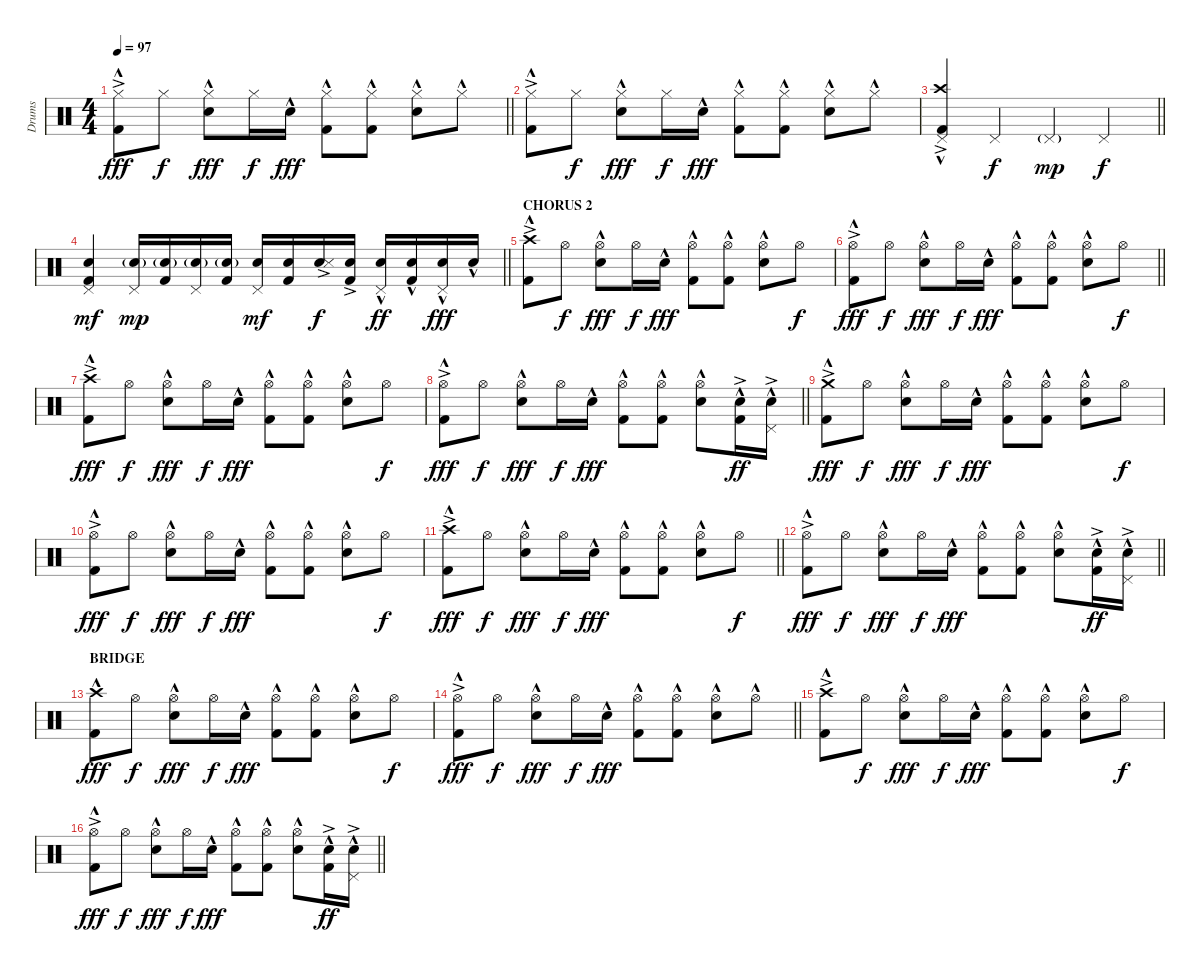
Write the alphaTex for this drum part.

\track ("Drums" "Drums") {instrument percussion}
\staff {score}
\articulation defaults
\ts (4 4)
\tempo 97
\clef neutral
\barLineRight lightlight
\ks c
("Hi-Hat (closed)"{ac} "Kick (hit) 2"{hac}).8{dy fff} "Hi-Hat (closed)".8{dy f} ("Hi-Hat (closed)" "Snare (hit) 2"{hac}).8{dy fff} "Hi-Hat (closed)".16{dy f} "Snare (hit) 2"{hac}.16{dy fff} ("Hi-Hat (closed)" "Kick (hit) 2"{hac}).8 ("Hi-Hat (closed)" "Kick (hit) 2"{hac}).8 ("Hi-Hat (closed)" "Snare (hit) 2"{hac}).8 "Hi-Hat (closed)"{hac}.8 |
("Hi-Hat (closed)"{ac} "Kick (hit) 2"{hac}).8 "Hi-Hat (closed)".8{dy f} ("Hi-Hat (closed)" "Snare (hit) 2"{hac}).8{dy fff} "Hi-Hat (closed)".16{dy f} "Snare (hit) 2"{hac}.16{dy fff} ("Hi-Hat (closed)" "Kick (hit) 2"{hac}).8 ("Hi-Hat (closed)" "Kick (hit) 2"{hac}).8 ("Hi-Hat (closed)" "Snare (hit) 2"{hac}).8 "Hi-Hat (closed)"{hac}.8 |
\barLineRight lightlight
("Crash high (hit)"{ac} "Pedal Hi-Hat (hit)" "Kick (hit) 2"{hac}).4 "Pedal Hi-Hat (hit)".4{dy f} "Pedal Hi-Hat (hit)"{g}.4{dy mp} "Pedal Hi-Hat (hit)".4{dy f} |
\barLineRight lightlight
("Snare (hit) 2" "Pedal Hi-Hat (hit)" "Kick (hit) 2").4{dy mf} ("Snare (hit) 2"{g} "Pedal Hi-Hat (hit)").16{dy mp} ("Snare (hit) 2"{g} "Kick (hit) 2").16 ("Snare (hit) 2"{g} "Pedal Hi-Hat (hit)").16 ("Snare (hit) 2"{g} "Kick (hit) 2").16 ("Snare (hit) 2" "Pedal Hi-Hat (hit)").16{dy mf} ("Snare (hit) 2" "Kick (hit) 2").16 ("Snare (hit) 2"{ac} "Metronome (hit)").16{dy f} ("Snare (hit) 2"{ac} "Kick (hit) 2").16 ("Snare (hit) 2"{hac} "Pedal Hi-Hat (hit)").16{dy ff} ("Snare (hit) 2"{hac} "Kick (hit) 2").16 ("Snare (hit) 2"{hac} "Pedal Hi-Hat (hit)").16{dy fff} "Snare (hit) 2"{hac}.16 |
\section ("" "CHORUS 2")
("Crash high (hit)"{ac} "Kick (hit) 2"{hac}).8 "Hi-Hat (open)".8{dy f} ("Hi-Hat (open)" "Snare (hit) 2"{hac}).8{dy fff} "Hi-Hat (open)".16{dy f} "Snare (hit) 2"{hac}.16{dy fff} ("Hi-Hat (open)" "Kick (hit) 2"{hac}).8 ("Hi-Hat (open)" "Kick (hit) 2"{hac}).8 ("Hi-Hat (open)" "Snare (hit) 2"{hac}).8 "Hi-Hat (open)".8{dy f} |
\barLineRight lightlight
("Hi-Hat (open)"{ac} "Kick (hit) 2"{hac}).8{dy fff} "Hi-Hat (open)".8{dy f} ("Hi-Hat (open)" "Snare (hit) 2"{hac}).8{dy fff} "Hi-Hat (open)".16{dy f} "Snare (hit) 2"{hac}.16{dy fff} ("Hi-Hat (open)" "Kick (hit) 2"{hac}).8 ("Hi-Hat (open)" "Kick (hit) 2"{hac}).8 ("Hi-Hat (open)" "Snare (hit) 2"{hac}).8 "Hi-Hat (open)".8{dy f} |
("Crash high (hit)"{ac} "Kick (hit) 2"{hac}).8{dy fff} "Hi-Hat (open)".8{dy f} ("Hi-Hat (open)" "Snare (hit) 2"{hac}).8{dy fff} "Hi-Hat (open)".16{dy f} "Snare (hit) 2"{hac}.16{dy fff} ("Hi-Hat (open)" "Kick (hit) 2"{hac}).8 ("Hi-Hat (open)" "Kick (hit) 2"{hac}).8 ("Hi-Hat (open)" "Snare (hit) 2"{hac}).8 "Hi-Hat (open)".8{dy f} |
\barLineRight lightlight
("Hi-Hat (open)"{ac} "Kick (hit) 2"{hac}).8{dy fff} "Hi-Hat (open)".8{dy f} ("Hi-Hat (open)" "Snare (hit) 2"{hac}).8{dy fff} "Hi-Hat (open)".16{dy f} "Snare (hit) 2"{hac}.16{dy fff} ("Hi-Hat (open)" "Kick (hit) 2"{hac}).8 ("Hi-Hat (open)" "Kick (hit) 2"{hac}).8 ("Hi-Hat (open)" "Snare (hit) 2"{hac}).8 ("Snare (hit) 2"{hac} "Kick (hit) 2"{ac}).16{dy ff} ("Snare (hit) 2"{hac} "Pedal Hi-Hat (hit)"{ac}).16 |
("Crash medium (hit)"{ac} "Kick (hit) 2"{hac}).8{dy fff} "Hi-Hat (open)".8{dy f} ("Hi-Hat (open)" "Snare (hit) 2"{hac}).8{dy fff} "Hi-Hat (open)".16{dy f} "Snare (hit) 2"{hac}.16{dy fff} ("Hi-Hat (open)" "Kick (hit) 2"{hac}).8 ("Hi-Hat (open)" "Kick (hit) 2"{hac}).8 ("Hi-Hat (open)" "Snare (hit) 2"{hac}).8 "Hi-Hat (open)".8{dy f} |
("Hi-Hat (open)"{ac} "Kick (hit) 2"{hac}).8{dy fff} "Hi-Hat (open)".8{dy f} ("Hi-Hat (open)" "Snare (hit) 2"{hac}).8{dy fff} "Hi-Hat (open)".16{dy f} "Snare (hit) 2"{hac}.16{dy fff} ("Hi-Hat (open)" "Kick (hit) 2"{hac}).8 ("Hi-Hat (open)" "Kick (hit) 2"{hac}).8 ("Hi-Hat (open)" "Snare (hit) 2"{hac}).8 "Hi-Hat (open)".8{dy f} |
\barLineRight lightlight
("Crash high (hit)"{ac} "Kick (hit) 2"{hac}).8{dy fff} "Hi-Hat (open)".8{dy f} ("Hi-Hat (open)" "Snare (hit) 2"{hac}).8{dy fff} "Hi-Hat (open)".16{dy f} "Snare (hit) 2"{hac}.16{dy fff} ("Hi-Hat (open)" "Kick (hit) 2"{hac}).8 ("Hi-Hat (open)" "Kick (hit) 2"{hac}).8 ("Hi-Hat (open)" "Snare (hit) 2"{hac}).8 "Hi-Hat (open)".8{dy f} |
\barLineRight lightlight
("Hi-Hat (open)"{ac} "Kick (hit) 2"{hac}).8{dy fff} "Hi-Hat (open)".8{dy f} ("Hi-Hat (open)" "Snare (hit) 2"{hac}).8{dy fff} "Hi-Hat (open)".16{dy f} "Snare (hit) 2"{hac}.16{dy fff} ("Hi-Hat (open)" "Kick (hit) 2"{hac}).8 ("Hi-Hat (open)" "Kick (hit) 2"{hac}).8 ("Hi-Hat (open)" "Snare (hit) 2"{hac}).8 ("Snare (hit) 2"{hac} "Kick (hit) 2"{ac}).16{dy ff} ("Snare (hit) 2"{hac} "Pedal Hi-Hat (hit)"{ac}).16 |
\section ("" "BRIDGE")
("Crash high (hit)"{hac} "Kick (hit) 2"{hac}).8{dy fff} "Hi-Hat (open)".8{dy f} ("Hi-Hat (open)" "Snare (hit) 2"{hac}).8{dy fff} "Hi-Hat (open)".16{dy f} "Snare (hit) 2"{hac}.16{dy fff} ("Hi-Hat (open)" "Kick (hit) 2"{hac}).8 ("Hi-Hat (open)" "Kick (hit) 2"{hac}).8 ("Hi-Hat (open)" "Snare (hit) 2"{hac}).8 "Hi-Hat (open)".8{dy f} |
\barLineRight lightlight
("Hi-Hat (open)"{ac} "Kick (hit) 2"{hac}).8{dy fff} "Hi-Hat (open)".8{dy f} ("Hi-Hat (open)" "Snare (hit) 2"{hac}).8{dy fff} "Hi-Hat (open)".16{dy f} "Snare (hit) 2"{hac}.16{dy fff} ("Hi-Hat (open)" "Kick (hit) 2"{hac}).8 ("Hi-Hat (open)" "Kick (hit) 2"{hac}).8 ("Hi-Hat (open)" "Snare (hit) 2"{hac}).8 "Hi-Hat (open)"{hac}.8 |
("Crash high (hit)"{ac} "Kick (hit) 2"{hac}).8 "Hi-Hat (open)".8{dy f} ("Hi-Hat (open)" "Snare (hit) 2"{hac}).8{dy fff} "Hi-Hat (open)".16{dy f} "Snare (hit) 2"{hac}.16{dy fff} ("Hi-Hat (open)" "Kick (hit) 2"{hac}).8 ("Hi-Hat (open)" "Kick (hit) 2"{hac}).8 ("Hi-Hat (open)" "Snare (hit) 2"{hac}).8 "Hi-Hat (open)".8{dy f} |
\barLineRight lightlight
("Hi-Hat (open)"{ac} "Kick (hit) 2"{hac}).8{dy fff} "Hi-Hat (open)".8{dy f} ("Hi-Hat (open)" "Snare (hit) 2"{hac}).8{dy fff} "Hi-Hat (open)".16{dy f} "Snare (hit) 2"{hac}.16{dy fff} ("Hi-Hat (open)" "Kick (hit) 2"{hac}).8 ("Hi-Hat (open)" "Kick (hit) 2"{hac}).8 ("Hi-Hat (open)" "Snare (hit) 2"{hac}).8 ("Snare (hit) 2"{hac} "Kick (hit) 2"{ac}).16{dy ff} ("Snare (hit) 2"{hac} "Pedal Hi-Hat (hit)"{ac}).16
